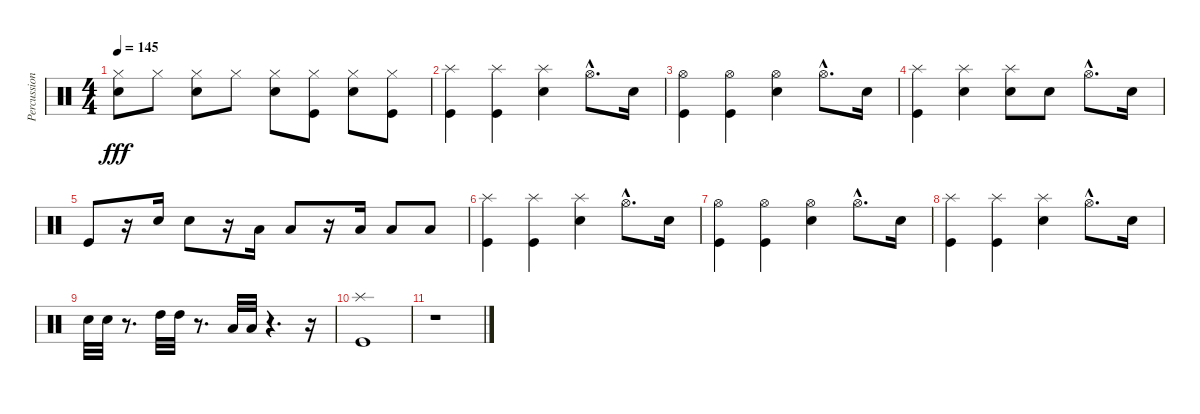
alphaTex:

\track ("Percussion" "Percussion") {instrument percussion}
\staff {score}
\articulation defaults
\ts (4 4)
\tempo 145
\clef neutral
\ks c
("Hi-Hat (closed)" "Snare (hit) 2").8{dy fff} "Hi-Hat (closed)".8 ("Hi-Hat (closed)" "Snare (hit) 2").8 "Hi-Hat (closed)".8 ("Hi-Hat (closed)" "Snare (hit) 2").8 ("Hi-Hat (closed)" "Kick (hit)").8 ("Hi-Hat (closed)" "Snare (hit) 2").8 ("Hi-Hat (closed)" "Kick (hit)").8 |
("Splash (hit)" "Kick (hit)").4 ("Splash (hit)" "Kick (hit)").4 ("Splash (hit)" "Snare (hit) 2").4 "Hi-Hat (open)"{hac}.8{d} "Snare (hit) 2".16 |
("Hi-Hat (open)" "Kick (hit)").4 ("Hi-Hat (open)" "Kick (hit)").4 ("Hi-Hat (open)" "Snare (hit) 2").4 "Hi-Hat (open)"{hac}.8{d} "Snare (hit) 2".16 |
("Splash (hit)" "Kick (hit)").4 ("Splash (hit)" "Snare (hit) 2").4 ("Splash (hit)" "Snare (hit) 2").8 "Snare (hit) 2".8 "Hi-Hat (open)"{hac}.8{d} "Snare (hit) 2".16 |
"Kick (hit)".8 r.16 "Snare (hit) 2".16 "Snare (hit) 2".8 r.16 "Low Tom (hit)".16 "Low Tom (hit)".8 r.16 "Low Tom (hit)".16 "Low Tom (hit)".8 "Low Tom (hit)".8 |
("Splash (hit)" "Kick (hit)").4 ("Splash (hit)" "Kick (hit)").4 ("Splash (hit)" "Snare (hit) 2").4 "Hi-Hat (open)"{hac}.8{d} "Snare (hit) 2".16 |
("Hi-Hat (open)" "Kick (hit)").4 ("Hi-Hat (open)" "Kick (hit)").4 ("Hi-Hat (open)" "Snare (hit) 2").4 "Hi-Hat (open)"{hac}.8{d} "Snare (hit) 2".16 |
("Splash (hit)" "Kick (hit)").4 ("Splash (hit)" "Kick (hit)").4 ("Splash (hit)" "Snare (hit) 2").4 "Hi-Hat (open)"{hac}.8{d} "Snare (hit) 2".16 |
"Snare (hit) 2".32 "Snare (hit) 2".32 r.8{d} "High Tom (hit)".32 "High Tom (hit)".32 r.8{d} "Low Tom (hit)".32 "Low Tom (hit)".32 r.4{d} r.16 |
("Splash (hit)" "Kick (hit)").1 |
r.1
